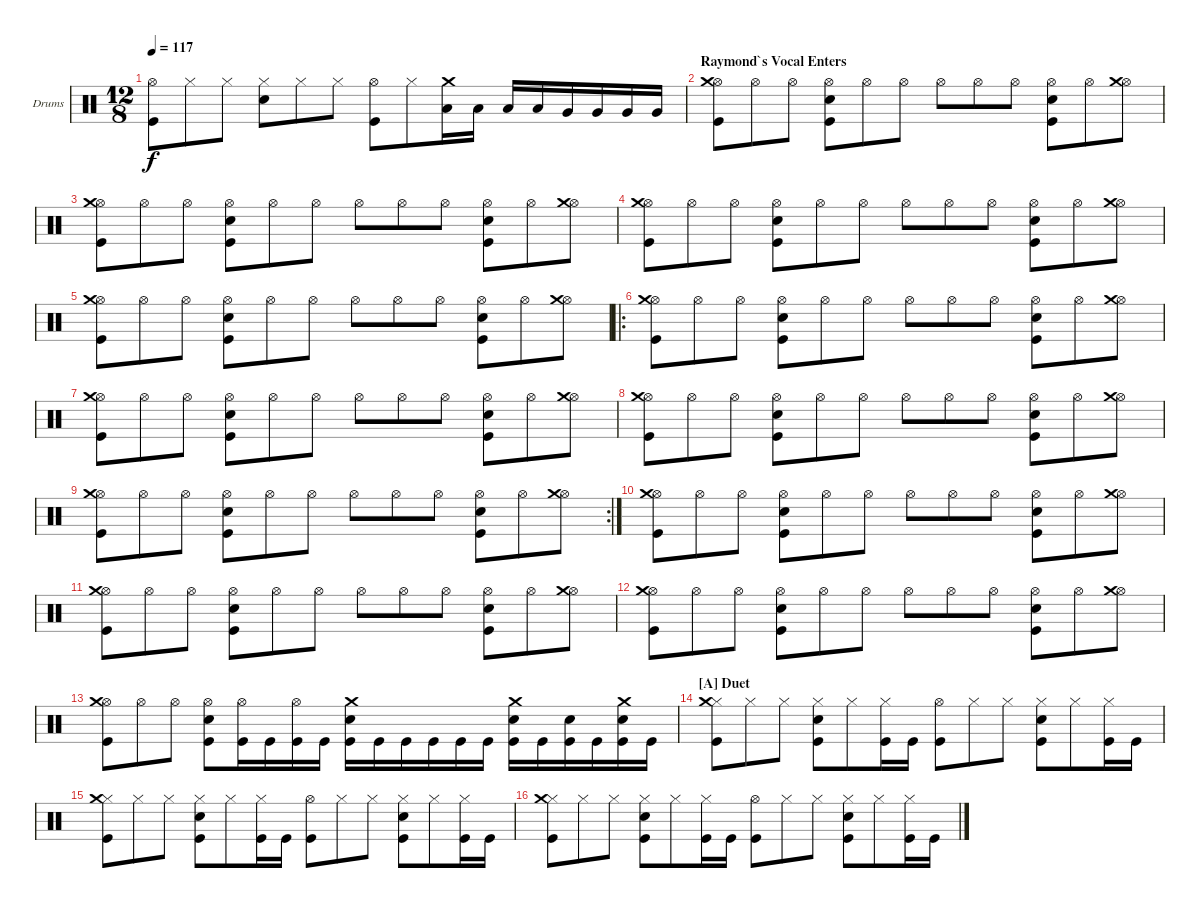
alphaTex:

\defaultSystemsLayout 4
\bracketExtendMode groupsimilarinstruments
\firstSystemTrackNameOrientation horizontal
\otherSystemsTrackNameOrientation horizontal
\track ("Drumkit" "Drums") {instrument percussion}
\staff {score}
\articulation defaults
\ts (12 8)
\tempo 117
\clef neutral
\scale
0.333333
\ks c
("Kick (hit)" "Hi-Hat (open)").8{dy f} "Hi-Hat (closed)".8 "Hi-Hat (closed)".8 ("Snare (hit) 2" "Hi-Hat (closed)").8 "Hi-Hat (closed)".8 "Hi-Hat (closed)".8 ("Kick (hit)" "Hi-Hat (open)").8 "Hi-Hat (closed)".8 ("Low Tom (hit)" "Crash medium (hit)").16 "Low Tom (hit)".16 "Low Tom (hit)".16 "Low Tom (hit)".16 "Very Low Tom (hit)".16 "Very Low Tom (hit)".16 "Very Low Tom (hit)".16 "Very Low Tom (hit)".16 |
\section ("" "Raymond`s Vocal Enters")
\scale
0.333333 ("Kick (hit)" "Hi-Hat (open)" "Crash medium (hit)").8 "Hi-Hat (open)".8 "Hi-Hat (open)".8 ("Kick (hit)" "Snare (hit) 2" "Hi-Hat (open)").8 "Hi-Hat (open)".8 "Hi-Hat (open)".8 "Hi-Hat (open)".8 "Hi-Hat (open)".8 "Hi-Hat (open)".8 ("Kick (hit)" "Snare (hit) 2" "Hi-Hat (open)").8 "Hi-Hat (open)".8 ("Hi-Hat (open)" "Crash medium (hit)").8 |
("Kick (hit)" "Hi-Hat (open)" "Crash medium (hit)").8 "Hi-Hat (open)".8 "Hi-Hat (open)".8 ("Kick (hit)" "Snare (hit) 2" "Hi-Hat (open)").8 "Hi-Hat (open)".8 "Hi-Hat (open)".8 "Hi-Hat (open)".8 "Hi-Hat (open)".8 "Hi-Hat (open)".8 ("Kick (hit)" "Snare (hit) 2" "Hi-Hat (open)").8 "Hi-Hat (open)".8 ("Hi-Hat (open)" "Crash medium (hit)").8 |
\scale
0.333333 ("Kick (hit)" "Hi-Hat (open)" "Crash medium (hit)").8 "Hi-Hat (open)".8 "Hi-Hat (open)".8 ("Kick (hit)" "Snare (hit) 2" "Hi-Hat (open)").8 "Hi-Hat (open)".8 "Hi-Hat (open)".8 "Hi-Hat (open)".8 "Hi-Hat (open)".8 "Hi-Hat (open)".8 ("Kick (hit)" "Snare (hit) 2" "Hi-Hat (open)").8 "Hi-Hat (open)".8 ("Hi-Hat (open)" "Crash medium (hit)").8 |
\scale
0.333333 ("Kick (hit)" "Hi-Hat (open)" "Crash medium (hit)").8 "Hi-Hat (open)".8 "Hi-Hat (open)".8 ("Kick (hit)" "Snare (hit) 2" "Hi-Hat (open)").8 "Hi-Hat (open)".8 "Hi-Hat (open)".8 "Hi-Hat (open)".8 "Hi-Hat (open)".8 "Hi-Hat (open)".8 ("Kick (hit)" "Snare (hit) 2" "Hi-Hat (open)").8 "Hi-Hat (open)".8 ("Hi-Hat (open)" "Crash medium (hit)").8 |
\ro
\scale
0.333333 ("Kick (hit)" "Hi-Hat (open)" "Crash medium (hit)").8 "Hi-Hat (open)".8 "Hi-Hat (open)".8 ("Kick (hit)" "Snare (hit) 2" "Hi-Hat (open)").8 "Hi-Hat (open)".8 "Hi-Hat (open)".8 "Hi-Hat (open)".8 "Hi-Hat (open)".8 "Hi-Hat (open)".8 ("Kick (hit)" "Snare (hit) 2" "Hi-Hat (open)").8 "Hi-Hat (open)".8 ("Hi-Hat (open)" "Crash medium (hit)").8 |
\scale
0.333333 ("Kick (hit)" "Hi-Hat (open)" "Crash medium (hit)").8 "Hi-Hat (open)".8 "Hi-Hat (open)".8 ("Kick (hit)" "Snare (hit) 2" "Hi-Hat (open)").8 "Hi-Hat (open)".8 "Hi-Hat (open)".8 "Hi-Hat (open)".8 "Hi-Hat (open)".8 "Hi-Hat (open)".8 ("Kick (hit)" "Snare (hit) 2" "Hi-Hat (open)").8 "Hi-Hat (open)".8 ("Hi-Hat (open)" "Crash medium (hit)").8 |
\scale
0.333333 ("Kick (hit)" "Hi-Hat (open)" "Crash medium (hit)").8 "Hi-Hat (open)".8 "Hi-Hat (open)".8 ("Kick (hit)" "Snare (hit) 2" "Hi-Hat (open)").8 "Hi-Hat (open)".8 "Hi-Hat (open)".8 "Hi-Hat (open)".8 "Hi-Hat (open)".8 "Hi-Hat (open)".8 ("Kick (hit)" "Snare (hit) 2" "Hi-Hat (open)").8 "Hi-Hat (open)".8 ("Hi-Hat (open)" "Crash medium (hit)").8 |
\rc 2
\scale
0.333333 ("Kick (hit)" "Hi-Hat (open)" "Crash medium (hit)").8 "Hi-Hat (open)".8 "Hi-Hat (open)".8 ("Kick (hit)" "Snare (hit) 2" "Hi-Hat (open)").8 "Hi-Hat (open)".8 "Hi-Hat (open)".8 "Hi-Hat (open)".8 "Hi-Hat (open)".8 "Hi-Hat (open)".8 ("Kick (hit)" "Snare (hit) 2" "Hi-Hat (open)").8 "Hi-Hat (open)".8 ("Hi-Hat (open)" "Crash medium (hit)").8 |
\scale
0.333333 ("Kick (hit)" "Hi-Hat (open)" "Crash medium (hit)").8 "Hi-Hat (open)".8 "Hi-Hat (open)".8 ("Kick (hit)" "Snare (hit) 2" "Hi-Hat (open)").8 "Hi-Hat (open)".8 "Hi-Hat (open)".8 "Hi-Hat (open)".8 "Hi-Hat (open)".8 "Hi-Hat (open)".8 ("Kick (hit)" "Snare (hit) 2" "Hi-Hat (open)").8 "Hi-Hat (open)".8 ("Hi-Hat (open)" "Crash medium (hit)").8 |
\scale
0.333333 ("Kick (hit)" "Hi-Hat (open)" "Crash medium (hit)").8 "Hi-Hat (open)".8 "Hi-Hat (open)".8 ("Kick (hit)" "Snare (hit) 2" "Hi-Hat (open)").8 "Hi-Hat (open)".8 "Hi-Hat (open)".8 "Hi-Hat (open)".8 "Hi-Hat (open)".8 "Hi-Hat (open)".8 ("Kick (hit)" "Snare (hit) 2" "Hi-Hat (open)").8 "Hi-Hat (open)".8 ("Hi-Hat (open)" "Crash medium (hit)").8 |
\scale
0.333333 ("Kick (hit)" "Hi-Hat (open)" "Crash medium (hit)").8 "Hi-Hat (open)".8 "Hi-Hat (open)".8 ("Kick (hit)" "Snare (hit) 2" "Hi-Hat (open)").8 "Hi-Hat (open)".8 "Hi-Hat (open)".8 "Hi-Hat (open)".8 "Hi-Hat (open)".8 "Hi-Hat (open)".8 ("Kick (hit)" "Snare (hit) 2" "Hi-Hat (open)").8 "Hi-Hat (open)".8 ("Hi-Hat (open)" "Crash medium (hit)").8 |
\scale
0.333333 ("Kick (hit)" "Hi-Hat (open)" "Crash medium (hit)").8 "Hi-Hat (open)".8 "Hi-Hat (open)".8 ("Kick (hit)" "Snare (hit) 2" "Hi-Hat (open)").8 ("Kick (hit)" "Hi-Hat (open)").16 "Kick (hit)".16 ("Kick (hit)" "Hi-Hat (open)").16 "Kick (hit)".16 ("Kick (hit)" "Snare (hit) 2" "Crash medium (hit)").16 "Kick (hit)".16 "Kick (hit)".16 "Kick (hit)".16 "Kick (hit)".16 "Kick (hit)".16 ("Kick (hit)" "Snare (hit) 2" "Crash medium (hit)").16 "Kick (hit)".16 ("Kick (hit)" "Snare (hit) 2").16 "Kick (hit)".16 ("Kick (hit)" "Snare (hit) 2" "Crash medium (hit)").16 "Kick (hit)".16 |
\section ("A" "Duet")
\scale
0.333333 ("Kick (hit)" "Hi-Hat (closed)" "Crash medium (hit)").8 "Hi-Hat (closed)".8 "Hi-Hat (closed)".8 ("Kick (hit)" "Snare (hit) 2" "Hi-Hat (closed)").8 "Hi-Hat (closed)".8 ("Kick (hit)" "Hi-Hat (closed)").16 "Kick (hit)".16 ("Kick (hit)" "Hi-Hat (open)").8 "Hi-Hat (closed)".8 "Hi-Hat (closed)".8 ("Kick (hit)" "Snare (hit) 2" "Hi-Hat (closed)").8 "Hi-Hat (closed)".8 ("Kick (hit)" "Hi-Hat (closed)").16 "Kick (hit)".16 |
\scale
0.333333 ("Kick (hit)" "Hi-Hat (closed)" "Crash medium (hit)").8 "Hi-Hat (closed)".8 "Hi-Hat (closed)".8 ("Kick (hit)" "Snare (hit) 2" "Hi-Hat (closed)").8 "Hi-Hat (closed)".8 ("Kick (hit)" "Hi-Hat (closed)").16 "Kick (hit)".16 ("Kick (hit)" "Hi-Hat (open)").8 "Hi-Hat (closed)".8 "Hi-Hat (closed)".8 ("Kick (hit)" "Snare (hit) 2" "Hi-Hat (closed)").8 "Hi-Hat (closed)".8 ("Kick (hit)" "Hi-Hat (closed)").16 "Kick (hit)".16 |
\scale
0.333333 ("Kick (hit)" "Hi-Hat (closed)" "Crash medium (hit)").8 "Hi-Hat (closed)".8 "Hi-Hat (closed)".8 ("Kick (hit)" "Snare (hit) 2" "Hi-Hat (closed)").8 "Hi-Hat (closed)".8 ("Kick (hit)" "Hi-Hat (closed)").16 "Kick (hit)".16 ("Kick (hit)" "Hi-Hat (open)").8 "Hi-Hat (closed)".8 "Hi-Hat (closed)".8 ("Kick (hit)" "Snare (hit) 2" "Hi-Hat (closed)").8 "Hi-Hat (closed)".8 ("Kick (hit)" "Hi-Hat (closed)").16 "Kick (hit)".16
